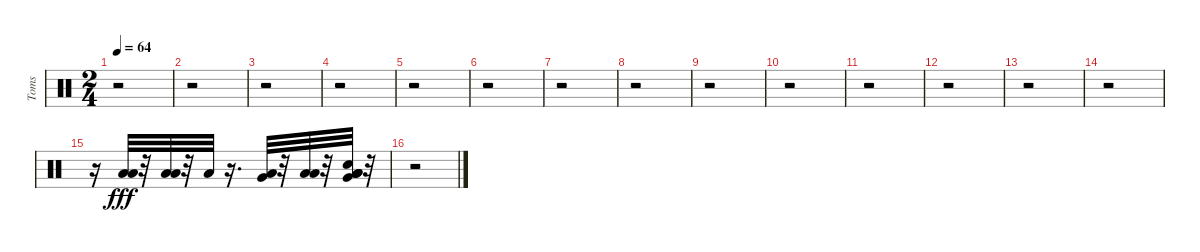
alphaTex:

\track ("Toms" "Toms") {instrument percussion}
\staff {score}
\articulation defaults
\ts (2 4)
\tempo 64
\clef neutral
\ks c
r.2{dy fff} |
r.2 |
r.2 |
r.2 |
r.2 |
r.2 |
r.2 |
r.2 |
r.2 |
r.2 |
r.2 |
r.2 |
r.2 |
r.2 |
r.16 ("Low Tom (hit)" "Low Tom (hit)").32 r.32 ("Low Tom (hit)" "Low Tom (hit)").32 r.32 "Low Tom (hit)".32 r.16{d} ("Very Low Tom (hit)" "Low Floor Tom (hit)").32 r.32 ("Low Floor Tom (hit)" "Low Floor Tom (hit)").32 r.32 ("Low Floor Tom (hit)" "Electric Snare (hit)" "Very Low Tom (hit)" "Low Floor Tom (hit)" "Low Floor Tom (hit)").32 r.32 |
r.2
